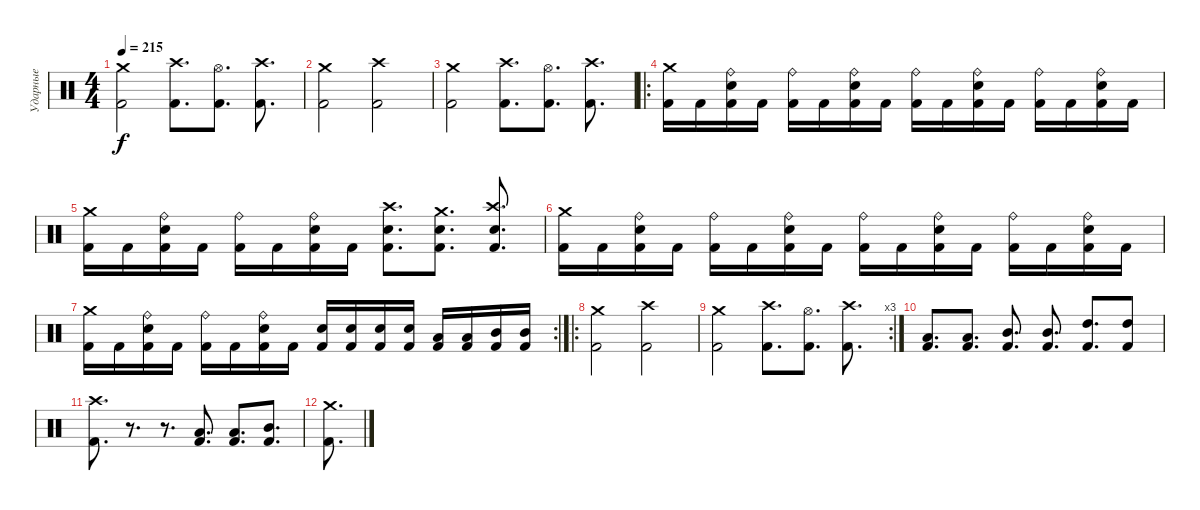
\track ("Ударные" "Ударные") {instrument percussion}
\staff {score}
\articulation defaults
\ts (4 4)
\tempo 215
\clef neutral
\ks c
("Crash medium (hit)" "Kick (hit) 2").2{dy f} ("Crash high (hit)" "Kick (hit) 2").8{d} ("Hi-Hat (open)" "Kick (hit) 2").8{d} ("Crash high (hit)" "Kick (hit) 2").8{d} |
("Crash medium (hit)" "Kick (hit) 2").2 ("Crash high (hit)" "Kick (hit) 2").2 |
("Crash medium (hit)" "Kick (hit) 2").2 ("Crash high (hit)" "Kick (hit) 2").8{d} ("Hi-Hat (open)" "Kick (hit) 2").8{d} ("Crash high (hit)" "Kick (hit) 2").8{d} |
\ro
("Crash medium (hit)" "Kick (hit) 2").16 "Kick (hit) 2".16 ("Ride (bell)" "Snare (hit) 2" "Kick (hit) 2").16 "Kick (hit) 2".16 ("Ride (bell)" "Kick (hit) 2").16 "Kick (hit) 2".16 ("Ride (bell)" "Snare (hit) 2" "Kick (hit) 2").16 "Kick (hit) 2".16 ("Ride (bell)" "Kick (hit) 2").16 "Kick (hit) 2".16 ("Ride (bell)" "Snare (hit) 2" "Kick (hit) 2").16 "Kick (hit) 2".16 ("Ride (bell)" "Kick (hit) 2").16 "Kick (hit) 2".16 ("Ride (bell)" "Snare (hit) 2" "Kick (hit) 2").16 "Kick (hit) 2".16 |
("Crash medium (hit)" "Kick (hit) 2").16 "Kick (hit) 2".16 ("Ride (bell)" "Snare (hit) 2" "Kick (hit) 2").16 "Kick (hit) 2".16 ("Ride (bell)" "Kick (hit) 2").16 "Kick (hit) 2".16 ("Ride (bell)" "Snare (hit) 2" "Kick (hit) 2").16 "Kick (hit) 2".16 ("Crash high (hit)" "Snare (hit) 2" "Kick (hit) 2").8{d} ("Crash medium (hit)" "Snare (hit) 2" "Kick (hit) 2").8{d} ("Crash high (hit)" "Snare (hit) 2" "Kick (hit) 2").8{d} |
("Crash medium (hit)" "Kick (hit) 2").16 "Kick (hit) 2".16 ("Ride (bell)" "Snare (hit) 2" "Kick (hit) 2").16 "Kick (hit) 2".16 ("Ride (bell)" "Kick (hit) 2").16 "Kick (hit) 2".16 ("Ride (bell)" "Snare (hit) 2" "Kick (hit) 2").16 "Kick (hit) 2".16 ("Ride (bell)" "Kick (hit) 2").16 "Kick (hit) 2".16 ("Ride (bell)" "Snare (hit) 2" "Kick (hit) 2").16 "Kick (hit) 2".16 ("Ride (bell)" "Kick (hit) 2").16 "Kick (hit) 2".16 ("Ride (bell)" "Snare (hit) 2" "Kick (hit) 2").16 "Kick (hit) 2".16 |
\rc 2
("Crash medium (hit)" "Kick (hit) 2").16 "Kick (hit) 2".16 ("Ride (bell)" "Snare (hit) 2" "Kick (hit) 2").16 "Kick (hit) 2".16 ("Ride (bell)" "Kick (hit) 2").16 "Kick (hit) 2".16 ("Ride (bell)" "Snare (hit) 2" "Kick (hit) 2").16 "Kick (hit) 2".16 ("Snare (hit) 2" "Kick (hit) 2").16 ("Snare (hit) 2" "Kick (hit) 2").16 ("Snare (hit) 2" "Kick (hit) 2").16 ("Snare (hit) 2" "Kick (hit) 2").16 ("Low Tom (hit)" "Kick (hit) 2").16 ("Low Tom (hit)" "Kick (hit) 2").16 ("Mid Tom (hit)" "Kick (hit) 2").16 ("Mid Tom (hit)" "Kick (hit) 2").16 |
\ro
("Crash medium (hit)" "Kick (hit) 2").2 ("Crash high (hit)" "Kick (hit) 2").2 |
\rc 3
("Crash medium (hit)" "Kick (hit) 2").2 ("Crash high (hit)" "Kick (hit) 2").8{d} ("Hi-Hat (open)" "Kick (hit) 2").8{d} ("Crash high (hit)" "Kick (hit) 2").8{d} |
("Low Tom (hit)" "Kick (hit) 2").8{d} ("Low Tom (hit)" "Kick (hit) 2").8{d} ("Mid Tom (hit)" "Kick (hit) 2").8{d} ("Mid Tom (hit)" "Kick (hit) 2").8{d} ("High Tom (hit)" "Kick (hit) 2").8{d} ("High Tom (hit)" "Kick (hit) 2").8 |
("Crash high (hit)" "Kick (hit) 2").8{d} r.8{d} r.8{d} ("Low Tom (hit)" "Kick (hit) 2").8{d} ("Low Tom (hit)" "Kick (hit) 2").8{d} ("Mid Tom (hit)" "Kick (hit) 2").8{d} |
("Crash medium (hit)" "Kick (hit) 2").8{d}
